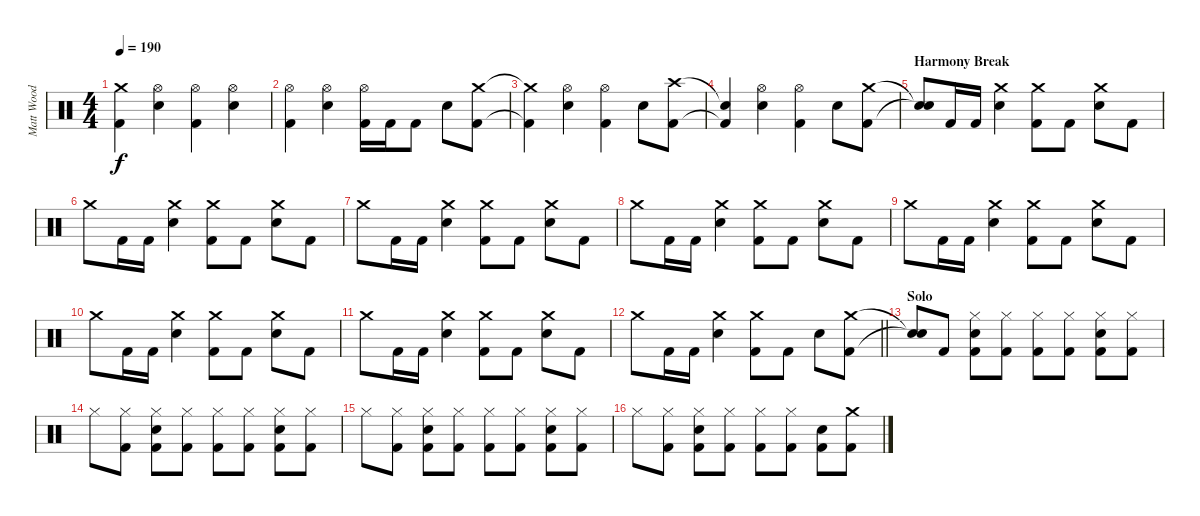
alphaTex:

\track ("Matt Wood" "Matt Wood") {instrument percussion}
\staff {score}
\articulation defaults
\ts (4 4)
\tempo 190
\clef neutral
\ks c
("Crash medium (hit)"{t} "Kick (hit) 2"{t}).4{dy f} ("Hi-Hat (open)" "Snare (hit) 2").4 ("Hi-Hat (open)" "Kick (hit) 2").4 ("Hi-Hat (open)" "Snare (hit) 2").4 |
("Hi-Hat (open)" "Kick (hit) 2").4 ("Hi-Hat (open)" "Snare (hit) 2").4 ("Hi-Hat (open)" "Kick (hit) 2").16 "Kick (hit) 2".16 "Kick (hit) 2".8 "Snare (hit) 2".8 ("Crash medium (hit)" "Kick (hit) 2").8 |
("Crash medium (hit)"{t} "Kick (hit) 2"{t}).4 ("Hi-Hat (open)" "Snare (hit) 2").4 ("Hi-Hat (open)" "Kick (hit) 2").4 "Snare (hit) 2".8 ("Crash high (hit)" "Kick (hit) 2").8 |
("Snare (hit)"{t} "Kick (hit) 2"{t}).4 ("Hi-Hat (open)" "Snare (hit) 2").4 ("Hi-Hat (open)" "Kick (hit) 2").4 "Snare (hit) 2".8 ("Crash medium (hit)" "Kick (hit) 2").8 |
\section ("" "Harmony Break")
("Snare (hit)"{t} "Snare (hit)"{t}).8 "Kick (hit) 2".16 "Kick (hit) 2".16 ("Crash medium (hit)" "Snare (hit) 2").4 ("Crash medium (hit)" "Kick (hit) 2").8 "Kick (hit) 2".8 ("Crash medium (hit)" "Snare (hit) 2").8 "Kick (hit) 2".8 |
"Crash medium (hit)".8 "Kick (hit) 2".16 "Kick (hit) 2".16 ("Crash medium (hit)" "Snare (hit) 2").4 ("Crash medium (hit)" "Kick (hit) 2").8 "Kick (hit) 2".8 ("Crash medium (hit)" "Snare (hit) 2").8 "Kick (hit) 2".8 |
"Crash medium (hit)".8 "Kick (hit) 2".16 "Kick (hit) 2".16 ("Crash medium (hit)" "Snare (hit) 2").4 ("Crash medium (hit)" "Kick (hit) 2").8 "Kick (hit) 2".8 ("Crash medium (hit)" "Snare (hit) 2").8 "Kick (hit) 2".8 |
"Crash medium (hit)".8 "Kick (hit) 2".16 "Kick (hit) 2".16 ("Crash medium (hit)" "Snare (hit) 2").4 ("Crash medium (hit)" "Kick (hit) 2").8 "Kick (hit) 2".8 ("Crash medium (hit)" "Snare (hit) 2").8 "Kick (hit) 2".8 |
"Crash medium (hit)".8 "Kick (hit) 2".16 "Kick (hit) 2".16 ("Crash medium (hit)" "Snare (hit) 2").4 ("Crash medium (hit)" "Kick (hit) 2").8 "Kick (hit) 2".8 ("Crash medium (hit)" "Snare (hit) 2").8 "Kick (hit) 2".8 |
"Crash medium (hit)".8 "Kick (hit) 2".16 "Kick (hit) 2".16 ("Crash medium (hit)" "Snare (hit) 2").4 ("Crash medium (hit)" "Kick (hit) 2").8 "Kick (hit) 2".8 ("Crash medium (hit)" "Snare (hit) 2").8 "Kick (hit) 2".8 |
"Crash medium (hit)".8 "Kick (hit) 2".16 "Kick (hit) 2".16 ("Crash medium (hit)" "Snare (hit) 2").4 ("Crash medium (hit)" "Kick (hit) 2").8 "Kick (hit) 2".8 ("Crash medium (hit)" "Snare (hit) 2").8 "Kick (hit) 2".8 |
\barLineRight lightlight "Crash medium (hit)".8 "Kick (hit) 2".16 "Kick (hit) 2".16
("Crash medium (hit)" "Snare (hit) 2").4 ("Crash medium (hit)" "Kick (hit) 2").8 "Kick (hit) 2".8 "Snare (hit) 2".8 ("Crash medium (hit)" "Kick (hit) 2").8 |
\section ("" "Solo")
("Snare (hit)"{t} "Snare (hit)"{t}).8 "Kick (hit) 2".8 ("Hi-Hat (closed)" "Snare (hit) 2" "Kick (hit) 2").8 ("Hi-Hat (closed)" "Kick (hit) 2").8 ("Hi-Hat (closed)" "Kick (hit) 2").8 ("Hi-Hat (closed)" "Kick (hit) 2").8 ("Hi-Hat (closed)" "Snare (hit) 2" "Kick (hit) 2").8 ("Hi-Hat (closed)" "Kick (hit) 2").8 |
"Hi-Hat (closed)".8 ("Hi-Hat (closed)" "Kick (hit) 2").8 ("Hi-Hat (closed)" "Snare (hit) 2" "Kick (hit) 2").8 ("Hi-Hat (closed)" "Kick (hit) 2").8 ("Hi-Hat (closed)" "Kick (hit) 2").8 ("Hi-Hat (closed)" "Kick (hit) 2").8 ("Hi-Hat (closed)" "Snare (hit) 2" "Kick (hit) 2").8 ("Hi-Hat (closed)" "Kick (hit) 2").8 |
"Hi-Hat (closed)".8 ("Hi-Hat (closed)" "Kick (hit) 2").8 ("Hi-Hat (closed)" "Snare (hit) 2" "Kick (hit) 2").8 ("Hi-Hat (closed)" "Kick (hit) 2").8 ("Hi-Hat (closed)" "Kick (hit) 2").8 ("Hi-Hat (closed)" "Kick (hit) 2").8 ("Hi-Hat (closed)" "Snare (hit) 2" "Kick (hit) 2").8 ("Hi-Hat (closed)" "Kick (hit) 2").8 |
"Hi-Hat (closed)".8 ("Hi-Hat (closed)" "Kick (hit) 2").8 ("Hi-Hat (closed)" "Snare (hit) 2" "Kick (hit) 2").8 ("Hi-Hat (closed)" "Kick (hit) 2").8 ("Hi-Hat (closed)" "Kick (hit) 2").8 ("Hi-Hat (closed)" "Kick (hit) 2").8 ("Snare (hit) 2" "Kick (hit) 2").8 ("Crash medium (hit)" "Kick (hit) 2").8
